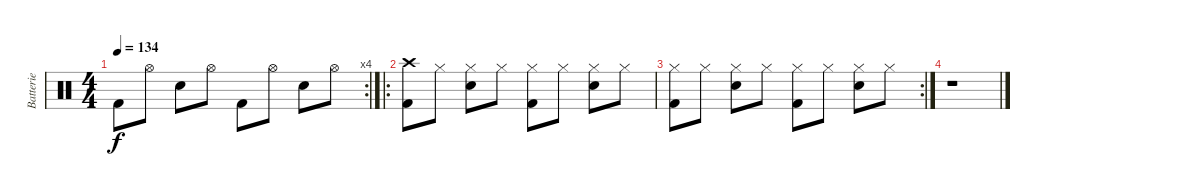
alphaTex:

\track ("Batterie" "Batterie") {instrument percussion}
\staff {score}
\articulation defaults
\rc 4
\ts (4 4)
\tempo 134
\clef neutral
\ks c "Kick (hit) 2".8{dy f} "Hi-Hat (open)".8 "Snare (hit) 2".8 "Hi-Hat (open)".8 "Kick (hit) 2".8 "Hi-Hat (open)".8 "Snare (hit) 2".8 "Hi-Hat (open)".8
|
\ro
("Kick (hit) 2" "Crash high (hit)").8 "Hi-Hat (closed)".8 ("Snare (hit) 2" "Hi-Hat (closed)").8 "Hi-Hat (closed)".8 ("Kick (hit) 2" "Hi-Hat (closed)").8 "Hi-Hat (closed)".8 ("Snare (hit) 2" "Hi-Hat (closed)").8 "Hi-Hat (closed)".8 |
\rc 2
("Kick (hit) 2" "Hi-Hat (closed)").8 "Hi-Hat (closed)".8 ("Snare (hit) 2" "Hi-Hat (closed)").8 "Hi-Hat (closed)".8 ("Kick (hit) 2" "Hi-Hat (closed)").8 "Hi-Hat (closed)".8 ("Snare (hit) 2" "Hi-Hat (closed)").8 "Hi-Hat (closed)".8 |
r.1
